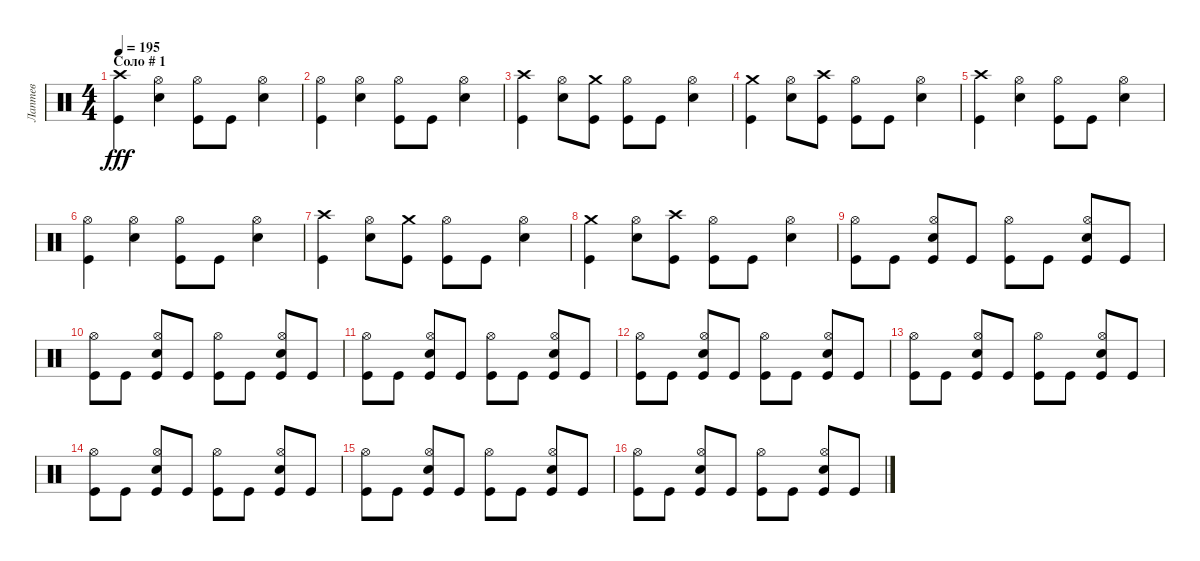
\track ("Лаптев" "Лаптев") {instrument percussion}
\staff {score}
\articulation defaults
\ts (4 4)
\section ("" "Соло # 1")
\tempo 195
\clef neutral
\ks c
("Crash high (hit)" "Kick (hit)").4{dy fff} ("Hi-Hat (open)" "Electric Snare (hit)").4 ("Hi-Hat (open)" "Kick (hit)").8 "Kick (hit)".8 ("Hi-Hat (open)" "Electric Snare (hit)").4 |
("Hi-Hat (open)" "Kick (hit)").4 ("Hi-Hat (open)" "Electric Snare (hit)").4 ("Hi-Hat (open)" "Kick (hit)").8 "Kick (hit)".8 ("Hi-Hat (open)" "Electric Snare (hit)").4 |
("Crash high (hit)" "Kick (hit)").4 ("Hi-Hat (open)" "Electric Snare (hit)").8 ("Crash medium (hit)" "Kick (hit)").8 ("Hi-Hat (open)" "Kick (hit)").8 "Kick (hit)".8 ("Hi-Hat (open)" "Electric Snare (hit)").4 |
("Crash medium (hit)" "Kick (hit)").4 ("Hi-Hat (open)" "Electric Snare (hit)").8 ("Crash high (hit)" "Kick (hit)").8 ("Hi-Hat (open)" "Kick (hit)").8 "Kick (hit)".8 ("Hi-Hat (open)" "Electric Snare (hit)").4 |
("Crash high (hit)" "Kick (hit)").4 ("Hi-Hat (open)" "Electric Snare (hit)").4 ("Hi-Hat (open)" "Kick (hit)").8 "Kick (hit)".8 ("Hi-Hat (open)" "Electric Snare (hit)").4 |
("Hi-Hat (open)" "Kick (hit)").4 ("Hi-Hat (open)" "Electric Snare (hit)").4 ("Hi-Hat (open)" "Kick (hit)").8 "Kick (hit)".8 ("Hi-Hat (open)" "Electric Snare (hit)").4 |
("Crash high (hit)" "Kick (hit)").4 ("Hi-Hat (open)" "Electric Snare (hit)").8 ("Crash medium (hit)" "Kick (hit)").8 ("Hi-Hat (open)" "Kick (hit)").8 "Kick (hit)".8 ("Hi-Hat (open)" "Electric Snare (hit)").4 |
("Crash medium (hit)" "Kick (hit)").4 ("Hi-Hat (open)" "Electric Snare (hit)").8 ("Crash high (hit)" "Kick (hit)").8 ("Hi-Hat (open)" "Kick (hit)").8 "Kick (hit)".8 ("Hi-Hat (open)" "Electric Snare (hit)").4 |
("Hi-Hat (open)" "Kick (hit)").8 "Kick (hit)".8 ("Hi-Hat (open)" "Electric Snare (hit)" "Kick (hit)").8 "Kick (hit)".8 ("Hi-Hat (open)" "Kick (hit)").8 "Kick (hit)".8 ("Hi-Hat (open)" "Electric Snare (hit)" "Kick (hit)").8 "Kick (hit)".8 |
("Hi-Hat (open)" "Kick (hit)").8 "Kick (hit)".8 ("Hi-Hat (open)" "Electric Snare (hit)" "Kick (hit)").8 "Kick (hit)".8 ("Hi-Hat (open)" "Kick (hit)").8 "Kick (hit)".8 ("Hi-Hat (open)" "Electric Snare (hit)" "Kick (hit)").8 "Kick (hit)".8 |
("Hi-Hat (open)" "Kick (hit)").8 "Kick (hit)".8 ("Hi-Hat (open)" "Electric Snare (hit)" "Kick (hit)").8 "Kick (hit)".8 ("Hi-Hat (open)" "Kick (hit)").8 "Kick (hit)".8 ("Hi-Hat (open)" "Electric Snare (hit)" "Kick (hit)").8 "Kick (hit)".8 |
("Hi-Hat (open)" "Kick (hit)").8 "Kick (hit)".8 ("Hi-Hat (open)" "Electric Snare (hit)" "Kick (hit)").8 "Kick (hit)".8 ("Hi-Hat (open)" "Kick (hit)").8 "Kick (hit)".8 ("Hi-Hat (open)" "Electric Snare (hit)" "Kick (hit)").8 "Kick (hit)".8 |
("Hi-Hat (open)" "Kick (hit)").8 "Kick (hit)".8 ("Hi-Hat (open)" "Electric Snare (hit)" "Kick (hit)").8 "Kick (hit)".8 ("Hi-Hat (open)" "Kick (hit)").8 "Kick (hit)".8 ("Hi-Hat (open)" "Electric Snare (hit)" "Kick (hit)").8 "Kick (hit)".8 |
("Hi-Hat (open)" "Kick (hit)").8 "Kick (hit)".8 ("Hi-Hat (open)" "Electric Snare (hit)" "Kick (hit)").8 "Kick (hit)".8 ("Hi-Hat (open)" "Kick (hit)").8 "Kick (hit)".8 ("Hi-Hat (open)" "Electric Snare (hit)" "Kick (hit)").8 "Kick (hit)".8 |
("Hi-Hat (open)" "Kick (hit)").8 "Kick (hit)".8 ("Hi-Hat (open)" "Electric Snare (hit)" "Kick (hit)").8 "Kick (hit)".8 ("Hi-Hat (open)" "Kick (hit)").8 "Kick (hit)".8 ("Hi-Hat (open)" "Electric Snare (hit)" "Kick (hit)").8 "Kick (hit)".8 |
("Hi-Hat (open)" "Kick (hit)").8 "Kick (hit)".8 ("Hi-Hat (open)" "Electric Snare (hit)" "Kick (hit)").8 "Kick (hit)".8 ("Hi-Hat (open)" "Kick (hit)").8 "Kick (hit)".8 ("Hi-Hat (open)" "Electric Snare (hit)" "Kick (hit)").8 "Kick (hit)".8
